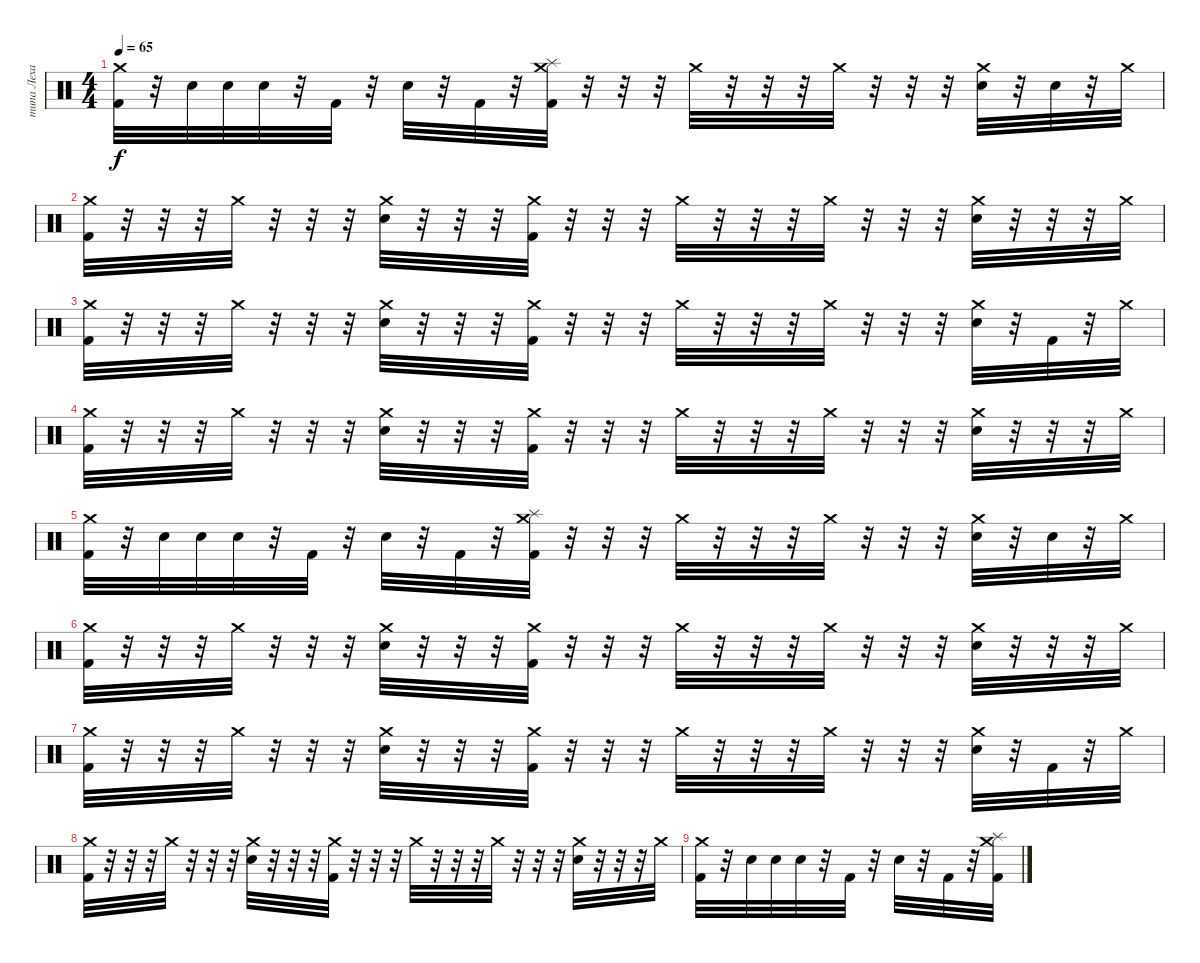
\track ("типа Леха" "типа Леха") {instrument percussion}
\staff {score}
\articulation defaults
\ts (4 4)
\tempo 65
\clef neutral
\ks c
("Crash medium (hit)" "Kick (hit) 2").32{dy f} r.32 "Electric Snare (hit)".32 "Electric Snare (hit)".32 "Electric Snare (hit)".32 r.32 "Kick (hit) 2".32 r.32 "Electric Snare (hit)".32 r.32 "Kick (hit) 2".32 r.32 ("Splash (hit)" "Crash medium (hit)" "Kick (hit) 2").32 r.32 r.32 r.32 "Crash medium (hit)".32 r.32 r.32 r.32 "Crash medium (hit)".32 r.32 r.32 r.32 ("Crash medium (hit)" "Electric Snare (hit)").32 r.32 "Electric Snare (hit)".32 r.32 "Crash medium (hit)".32 |
("Crash medium (hit)" "Kick (hit) 2").32 r.32 r.32 r.32 "Crash medium (hit)".32 r.32 r.32 r.32 ("Crash medium (hit)" "Electric Snare (hit)").32 r.32 r.32 r.32 ("Crash medium (hit)" "Kick (hit) 2").32 r.32 r.32 r.32 "Crash medium (hit)".32 r.32 r.32 r.32 "Crash medium (hit)".32 r.32 r.32 r.32 ("Crash medium (hit)" "Electric Snare (hit)").32 r.32 r.32 r.32 "Crash medium (hit)".32 |
("Crash medium (hit)" "Kick (hit) 2").32 r.32 r.32 r.32 "Crash medium (hit)".32 r.32 r.32 r.32 ("Crash medium (hit)" "Electric Snare (hit)").32 r.32 r.32 r.32 ("Crash medium (hit)" "Kick (hit) 2").32 r.32 r.32 r.32 "Crash medium (hit)".32 r.32 r.32 r.32 "Crash medium (hit)".32 r.32 r.32 r.32 ("Crash medium (hit)" "Electric Snare (hit)").32 r.32 "Kick (hit) 2".32 r.32 "Crash medium (hit)".32 |
("Crash medium (hit)" "Kick (hit) 2").32 r.32 r.32 r.32 "Crash medium (hit)".32 r.32 r.32 r.32 ("Crash medium (hit)" "Electric Snare (hit)").32 r.32 r.32 r.32 ("Crash medium (hit)" "Kick (hit) 2").32 r.32 r.32 r.32 "Crash medium (hit)".32 r.32 r.32 r.32 "Crash medium (hit)".32 r.32 r.32 r.32 ("Crash medium (hit)" "Electric Snare (hit)").32 r.32 r.32 r.32 "Crash medium (hit)".32 |
("Crash medium (hit)" "Kick (hit) 2").32 r.32 "Electric Snare (hit)".32 "Electric Snare (hit)".32 "Electric Snare (hit)".32 r.32 "Kick (hit) 2".32 r.32 "Electric Snare (hit)".32 r.32 "Kick (hit) 2".32 r.32 ("Splash (hit)" "Crash medium (hit)" "Kick (hit) 2").32 r.32 r.32 r.32 "Crash medium (hit)".32 r.32 r.32 r.32 "Crash medium (hit)".32 r.32 r.32 r.32 ("Crash medium (hit)" "Electric Snare (hit)").32 r.32 "Electric Snare (hit)".32 r.32 "Crash medium (hit)".32 |
("Crash medium (hit)" "Kick (hit) 2").32 r.32 r.32 r.32 "Crash medium (hit)".32 r.32 r.32 r.32 ("Crash medium (hit)" "Electric Snare (hit)").32 r.32 r.32 r.32 ("Crash medium (hit)" "Kick (hit) 2").32 r.32 r.32 r.32 "Crash medium (hit)".32 r.32 r.32 r.32 "Crash medium (hit)".32 r.32 r.32 r.32 ("Crash medium (hit)" "Electric Snare (hit)").32 r.32 r.32 r.32 "Crash medium (hit)".32 |
("Crash medium (hit)" "Kick (hit) 2").32 r.32 r.32 r.32 "Crash medium (hit)".32 r.32 r.32 r.32 ("Crash medium (hit)" "Electric Snare (hit)").32 r.32 r.32 r.32 ("Crash medium (hit)" "Kick (hit) 2").32 r.32 r.32 r.32 "Crash medium (hit)".32 r.32 r.32 r.32 "Crash medium (hit)".32 r.32 r.32 r.32 ("Crash medium (hit)" "Electric Snare (hit)").32 r.32 "Kick (hit) 2".32 r.32 "Crash medium (hit)".32 |
("Crash medium (hit)" "Kick (hit) 2").32 r.32 r.32 r.32 "Crash medium (hit)".32 r.32 r.32 r.32 ("Crash medium (hit)" "Electric Snare (hit)").32 r.32 r.32 r.32 ("Crash medium (hit)" "Kick (hit) 2").32 r.32 r.32 r.32 "Crash medium (hit)".32 r.32 r.32 r.32 "Crash medium (hit)".32 r.32 r.32 r.32 ("Crash medium (hit)" "Electric Snare (hit)").32 r.32 r.32 r.32 "Crash medium (hit)".32 |
("Crash medium (hit)" "Kick (hit) 2").32 r.32 "Electric Snare (hit)".32 "Electric Snare (hit)".32 "Electric Snare (hit)".32 r.32 "Kick (hit) 2".32 r.32 "Electric Snare (hit)".32 r.32 "Kick (hit) 2".32 r.32 ("Splash (hit)" "Crash medium (hit)" "Kick (hit) 2").32
